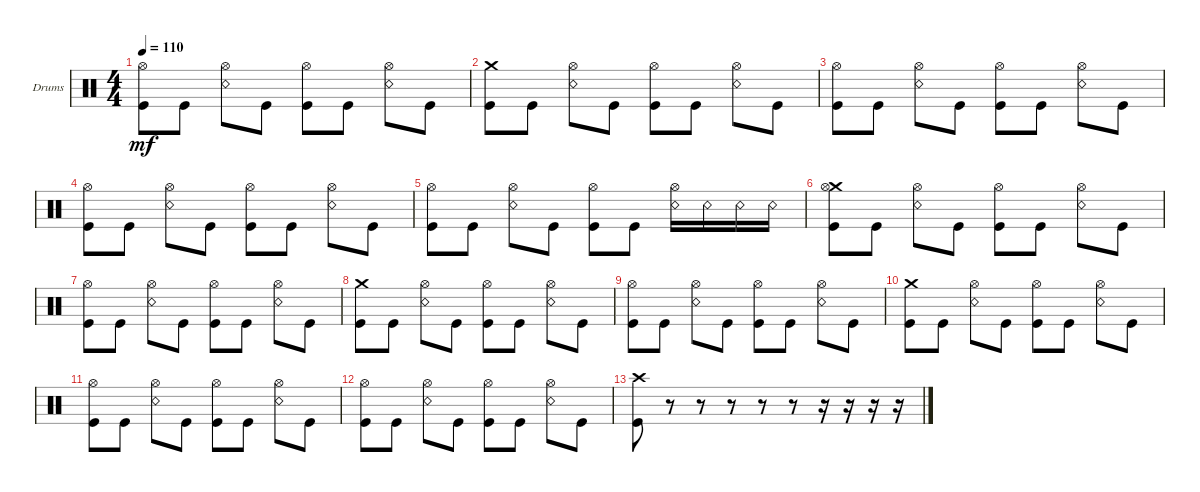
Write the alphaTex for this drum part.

\defaultSystemsLayout 4
\bracketExtendMode groupsimilarinstruments
\firstSystemTrackNameOrientation horizontal
\otherSystemsTrackNameOrientation horizontal
\track ("Drumkit" "Drums") {instrument percussion}
\staff {score}
\articulation defaults
\ts (4 4)
\tempo 110
\clef neutral
\ks c
("Kick (hit)" "Hi-Hat (open)").8{dy mf} "Kick (hit)".8 ("Snare (rim shot)" "Hi-Hat (open)").8 "Kick (hit)".8 ("Kick (hit)" "Hi-Hat (open)").8 "Kick (hit)".8 ("Snare (rim shot)" "Hi-Hat (open)").8 "Kick (hit)".8 |
("Kick (hit)" "Crash medium (hit)").8 "Kick (hit)".8 ("Snare (rim shot)" "Hi-Hat (open)").8 "Kick (hit)".8 ("Kick (hit)" "Hi-Hat (open)").8 "Kick (hit)".8 ("Snare (rim shot)" "Hi-Hat (open)").8 "Kick (hit)".8 |
("Kick (hit)" "Hi-Hat (open)").8 "Kick (hit)".8 ("Snare (rim shot)" "Hi-Hat (open)").8 "Kick (hit)".8 ("Kick (hit)" "Hi-Hat (open)").8 "Kick (hit)".8 ("Snare (rim shot)" "Hi-Hat (open)").8 "Kick (hit)".8 |
("Kick (hit)" "Hi-Hat (open)").8 "Kick (hit)".8 ("Snare (rim shot)" "Hi-Hat (open)").8 "Kick (hit)".8 ("Kick (hit)" "Hi-Hat (open)").8 "Kick (hit)".8 ("Snare (rim shot)" "Hi-Hat (open)").8 "Kick (hit)".8 |
("Kick (hit)" "Hi-Hat (open)").8 "Kick (hit)".8 ("Snare (rim shot)" "Hi-Hat (open)").8 "Kick (hit)".8 ("Kick (hit)" "Hi-Hat (open)").8 "Kick (hit)".8 ("Snare (rim shot)" "Hi-Hat (open)").16 "Snare (rim shot)".16 "Snare (rim shot)".16 "Snare (rim shot)".16 |
("Kick (hit)" "Crash medium (hit)" "Hi-Hat (open)").8 "Kick (hit)".8 ("Snare (rim shot)" "Hi-Hat (open)").8 "Kick (hit)".8 ("Kick (hit)" "Hi-Hat (open)").8 "Kick (hit)".8 ("Snare (rim shot)" "Hi-Hat (open)").8 "Kick (hit)".8 |
("Kick (hit)" "Hi-Hat (open)").8 "Kick (hit)".8 ("Snare (rim shot)" "Hi-Hat (open)").8 "Kick (hit)".8 ("Kick (hit)" "Hi-Hat (open)").8 "Kick (hit)".8 ("Snare (rim shot)" "Hi-Hat (open)").8 "Kick (hit)".8 |
("Kick (hit)" "Crash medium (hit)").8 "Kick (hit)".8 ("Snare (rim shot)" "Hi-Hat (open)").8 "Kick (hit)".8 ("Kick (hit)" "Hi-Hat (open)").8 "Kick (hit)".8 ("Snare (rim shot)" "Hi-Hat (open)").8 "Kick (hit)".8 |
("Kick (hit)" "Hi-Hat (open)").8 "Kick (hit)".8 ("Snare (rim shot)" "Hi-Hat (open)").8 "Kick (hit)".8 ("Kick (hit)" "Hi-Hat (open)").8 "Kick (hit)".8 ("Snare (rim shot)" "Hi-Hat (open)").8 "Kick (hit)".8 |
("Kick (hit)" "Crash medium (hit)").8 "Kick (hit)".8 ("Snare (rim shot)" "Hi-Hat (open)").8 "Kick (hit)".8 ("Kick (hit)" "Hi-Hat (open)").8 "Kick (hit)".8 ("Snare (rim shot)" "Hi-Hat (open)").8 "Kick (hit)".8 |
("Kick (hit)" "Hi-Hat (open)").8 "Kick (hit)".8 ("Snare (rim shot)" "Hi-Hat (open)").8 "Kick (hit)".8 ("Kick (hit)" "Hi-Hat (open)").8 "Kick (hit)".8 ("Snare (rim shot)" "Hi-Hat (open)").8 "Kick (hit)".8 |
("Kick (hit)" "Hi-Hat (open)").8 "Kick (hit)".8 ("Snare (rim shot)" "Hi-Hat (open)").8 "Kick (hit)".8 ("Kick (hit)" "Hi-Hat (open)").8 "Kick (hit)".8 ("Snare (rim shot)" "Hi-Hat (open)").8 "Kick (hit)".8 |
("Kick (hit)" "Crash high (hit)").8 r.8 r.8 r.8 r.8 r.8 r.16 r.16 r.16 r.16
